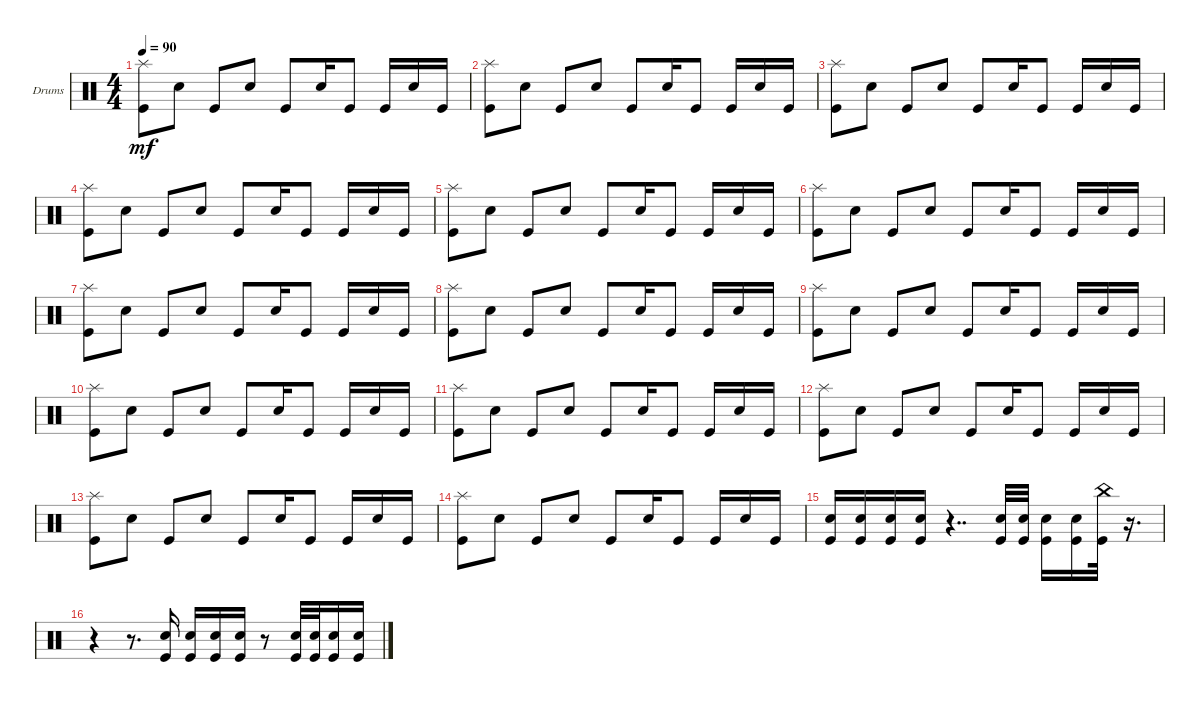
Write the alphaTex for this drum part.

\defaultSystemsLayout 4
\bracketExtendMode groupsimilarinstruments
\firstSystemTrackNameOrientation horizontal
\otherSystemsTrackNameOrientation horizontal
\track ("Drumkit" "Drums") {instrument percussion}
\staff {score}
\articulation defaults
\ts (4 4)
\tempo 90
\clef neutral
\ks c
("Kick (hit)" "Splash (hit)").8{dy mf} "Snare (hit) 2".8 "Kick (hit)".8 "Snare (hit) 2".8 "Kick (hit)".8 "Snare (hit) 2".16 "Kick (hit)".8 "Kick (hit)".16 "Snare (hit) 2".16 "Kick (hit)".16 |
("Kick (hit)" "Splash (hit)").8 "Snare (hit) 2".8 "Kick (hit)".8 "Snare (hit) 2".8 "Kick (hit)".8 "Snare (hit) 2".16 "Kick (hit)".8 "Kick (hit)".16 "Snare (hit) 2".16 "Kick (hit)".16 |
("Kick (hit)" "Splash (hit)").8 "Snare (hit) 2".8 "Kick (hit)".8 "Snare (hit) 2".8 "Kick (hit)".8 "Snare (hit) 2".16 "Kick (hit)".8 "Kick (hit)".16 "Snare (hit) 2".16 "Kick (hit)".16 |
("Kick (hit)" "Splash (hit)").8 "Snare (hit) 2".8 "Kick (hit)".8 "Snare (hit) 2".8 "Kick (hit)".8 "Snare (hit) 2".16 "Kick (hit)".8 "Kick (hit)".16 "Snare (hit) 2".16 "Kick (hit)".16 |
("Kick (hit)" "Splash (hit)").8 "Snare (hit) 2".8 "Kick (hit)".8 "Snare (hit) 2".8 "Kick (hit)".8 "Snare (hit) 2".16 "Kick (hit)".8 "Kick (hit)".16 "Snare (hit) 2".16 "Kick (hit)".16 |
("Kick (hit)" "Splash (hit)").8 "Snare (hit) 2".8 "Kick (hit)".8 "Snare (hit) 2".8 "Kick (hit)".8 "Snare (hit) 2".16 "Kick (hit)".8 "Kick (hit)".16 "Snare (hit) 2".16 "Kick (hit)".16 |
("Kick (hit)" "Splash (hit)").8 "Snare (hit) 2".8 "Kick (hit)".8 "Snare (hit) 2".8 "Kick (hit)".8 "Snare (hit) 2".16 "Kick (hit)".8 "Kick (hit)".16 "Snare (hit) 2".16 "Kick (hit)".16 |
("Kick (hit)" "Splash (hit)").8 "Snare (hit) 2".8 "Kick (hit)".8 "Snare (hit) 2".8 "Kick (hit)".8 "Snare (hit) 2".16 "Kick (hit)".8 "Kick (hit)".16 "Snare (hit) 2".16 "Kick (hit)".16 |
("Kick (hit)" "Splash (hit)").8 "Snare (hit) 2".8 "Kick (hit)".8 "Snare (hit) 2".8 "Kick (hit)".8 "Snare (hit) 2".16 "Kick (hit)".8 "Kick (hit)".16 "Snare (hit) 2".16 "Kick (hit)".16 |
("Kick (hit)" "Splash (hit)").8 "Snare (hit) 2".8 "Kick (hit)".8 "Snare (hit) 2".8 "Kick (hit)".8 "Snare (hit) 2".16 "Kick (hit)".8 "Kick (hit)".16 "Snare (hit) 2".16 "Kick (hit)".16 |
("Kick (hit)" "Splash (hit)").8 "Snare (hit) 2".8 "Kick (hit)".8 "Snare (hit) 2".8 "Kick (hit)".8 "Snare (hit) 2".16 "Kick (hit)".8 "Kick (hit)".16 "Snare (hit) 2".16 "Kick (hit)".16 |
("Kick (hit)" "Splash (hit)").8 "Snare (hit) 2".8 "Kick (hit)".8 "Snare (hit) 2".8 "Kick (hit)".8 "Snare (hit) 2".16 "Kick (hit)".8 "Kick (hit)".16 "Snare (hit) 2".16 "Kick (hit)".16 |
("Kick (hit)" "Splash (hit)").8 "Snare (hit) 2".8 "Kick (hit)".8 "Snare (hit) 2".8 "Kick (hit)".8 "Snare (hit) 2".16 "Kick (hit)".8 "Kick (hit)".16 "Snare (hit) 2".16 "Kick (hit)".16 |
("Kick (hit)" "Splash (hit)").8 "Snare (hit) 2".8 "Kick (hit)".8 "Snare (hit) 2".8 "Kick (hit)".8 "Snare (hit) 2".16 "Kick (hit)".8 "Kick (hit)".16 "Snare (hit) 2".16 "Kick (hit)".16 |
("Snare (hit) 2" "Kick (hit)").16 ("Kick (hit)" "Snare (hit) 2").16 ("Kick (hit)" "Snare (hit) 2").16 ("Kick (hit)" "Snare (hit) 2").16 r.4{dd} ("Kick (hit)" "Snare (hit) 2").32 ("Kick (hit)" "Snare (hit) 2").32 ("Kick (hit)" "Snare (hit) 2").16 ("Kick (hit)" "Snare (hit) 2").16 ("Kick (hit)" "China (hit)").32 r.16{d} |
r.4 r.8{d} ("Snare (hit) 2" "Kick (hit)").16 ("Kick (hit)" "Snare (hit) 2").16 ("Kick (hit)" "Snare (hit) 2").16 ("Kick (hit)" "Snare (hit) 2").16 r.8 ("Kick (hit)" "Snare (hit) 2").32 ("Kick (hit)" "Snare (hit) 2").32 ("Kick (hit)" "Snare (hit) 2").16 ("Kick (hit)" "Snare (hit) 2").16
